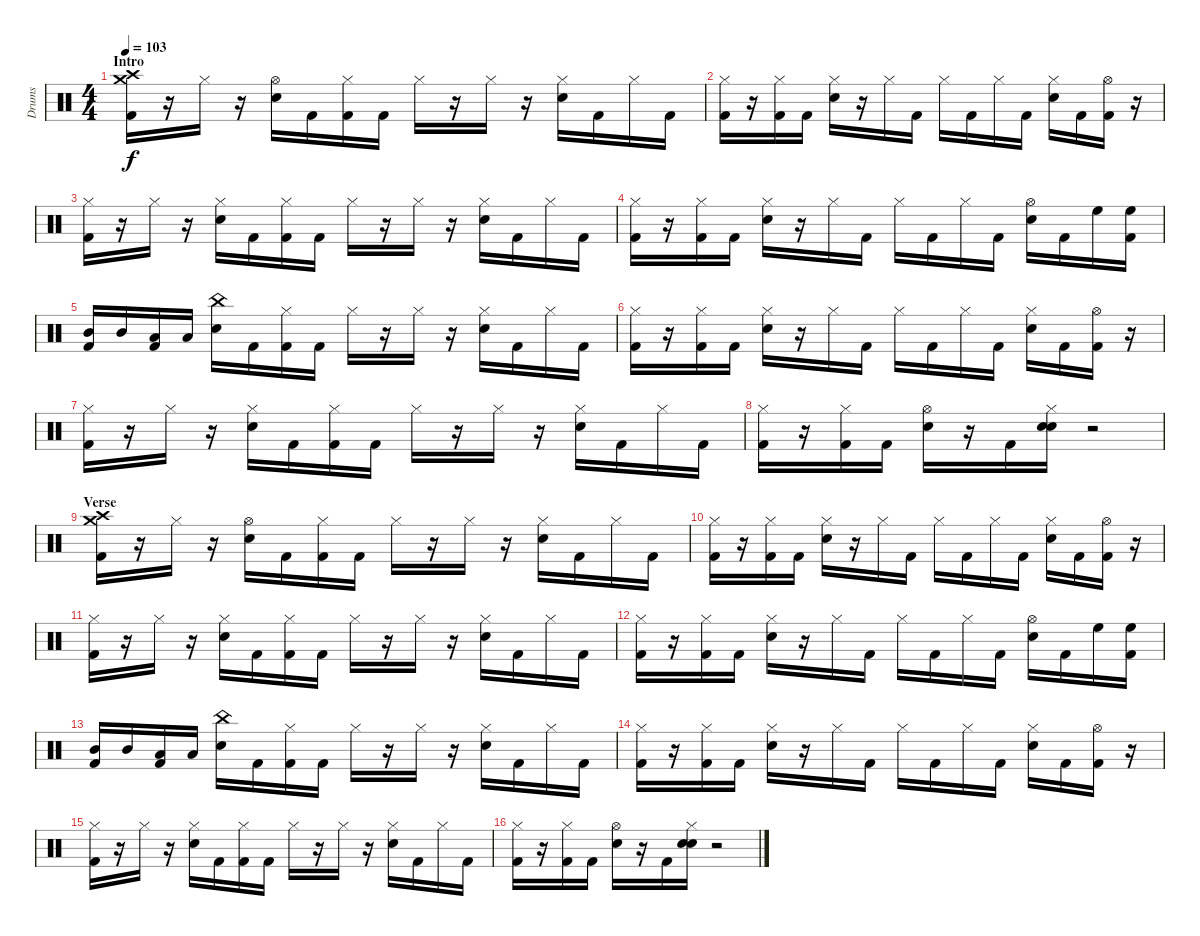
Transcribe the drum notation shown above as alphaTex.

\track ("Drums" "Drums") {instrument percussion}
\staff {score}
\articulation defaults
\ts (4 4)
\section ("" "Intro")
\tempo 103
\clef neutral
\ks c
("Crash high (hit)" "Crash medium (hit)" "Kick (hit) 2").16{dy f} r.16 "Hi-Hat (closed)".16 r.16 ("Hi-Hat (open)" "Snare (hit) 2").16 "Kick (hit) 2".16 ("Hi-Hat (closed)" "Kick (hit) 2").16 "Kick (hit) 2".16 "Hi-Hat (closed)".16 r.16 "Hi-Hat (closed)".16 r.16 ("Hi-Hat (closed)" "Snare (hit) 2").16 "Kick (hit) 2".16 "Hi-Hat (closed)".16 "Kick (hit) 2".16 |
("Hi-Hat (closed)" "Kick (hit) 2").16 r.16 ("Hi-Hat (closed)" "Kick (hit) 2").16 "Kick (hit) 2".16 ("Hi-Hat (closed)" "Snare (hit) 2").16 r.16 "Hi-Hat (closed)".16 "Kick (hit) 2".16 "Hi-Hat (closed)".16 "Kick (hit) 2".16 "Hi-Hat (closed)".16 "Kick (hit) 2".16 ("Hi-Hat (closed)" "Snare (hit) 2").16 "Kick (hit) 2".16 ("Hi-Hat (open)" "Kick (hit) 2").16 r.16 |
("Hi-Hat (closed)" "Kick (hit) 2").16 r.16 "Hi-Hat (closed)".16 r.16 ("Hi-Hat (closed)" "Snare (hit) 2").16 "Kick (hit) 2".16 ("Hi-Hat (closed)" "Kick (hit) 2").16 "Kick (hit) 2".16 "Hi-Hat (closed)".16 r.16 "Hi-Hat (closed)".16 r.16 ("Hi-Hat (closed)" "Snare (hit) 2").16 "Kick (hit) 2".16 "Hi-Hat (closed)".16 "Kick (hit) 2".16 |
("Hi-Hat (closed)" "Kick (hit) 2").16 r.16 ("Hi-Hat (closed)" "Kick (hit) 2").16 "Kick (hit) 2".16 ("Hi-Hat (closed)" "Snare (hit) 2").16 r.16 "Hi-Hat (closed)".16 "Kick (hit) 2".16 "Hi-Hat (closed)".16 "Kick (hit) 2".16 "Hi-Hat (closed)".16 "Kick (hit) 2".16 ("Hi-Hat (open)" "Snare (hit) 2").16 "Kick (hit) 2".16 "High Floor Tom (hit)".16 ("High Floor Tom (hit)" "Kick (hit) 2").16 |
("Mid Tom (hit)" "Kick (hit) 2").16 "Mid Tom (hit)".16 ("Low Tom (hit)" "Kick (hit) 2").16 "Low Tom (hit)".16 ("China (hit)" "Snare (hit) 2").16 "Kick (hit) 2".16 ("Hi-Hat (closed)" "Kick (hit) 2").16 "Kick (hit) 2".16 "Hi-Hat (closed)".16 r.16 "Hi-Hat (closed)".16 r.16 ("Hi-Hat (closed)" "Snare (hit) 2").16 "Kick (hit) 2".16 "Hi-Hat (closed)".16 "Kick (hit) 2".16 |
("Hi-Hat (closed)" "Kick (hit) 2").16 r.16 ("Hi-Hat (closed)" "Kick (hit) 2").16 "Kick (hit) 2".16 ("Hi-Hat (closed)" "Snare (hit) 2").16 r.16 "Hi-Hat (closed)".16 "Kick (hit) 2".16 "Hi-Hat (closed)".16 "Kick (hit) 2".16 "Hi-Hat (closed)".16 "Kick (hit) 2".16 ("Hi-Hat (closed)" "Snare (hit) 2").16 "Kick (hit) 2".16 ("Hi-Hat (open)" "Kick (hit) 2").16 r.16 |
("Hi-Hat (closed)" "Kick (hit) 2").16 r.16 "Hi-Hat (closed)".16 r.16 ("Hi-Hat (closed)" "Snare (hit) 2").16 "Kick (hit) 2".16 ("Hi-Hat (closed)" "Kick (hit) 2").16 "Kick (hit) 2".16 "Hi-Hat (closed)".16 r.16 "Hi-Hat (closed)".16 r.16 ("Hi-Hat (closed)" "Snare (hit) 2").16 "Kick (hit) 2".16 "Hi-Hat (closed)".16 "Kick (hit) 2".16 |
("Hi-Hat (closed)" "Kick (hit) 2").16 r.16 ("Hi-Hat (closed)" "Kick (hit) 2").16 "Kick (hit) 2".16 ("Hi-Hat (open)" "Snare (hit) 2").16 r.16 "Kick (hit) 2".16 ("Hi-Hat (closed)" "Snare (hit) 2" "Snare (hit) 2").16 r.2 |
\section ("" "Verse")
("Crash high (hit)" "Crash medium (hit)" "Kick (hit) 2").16 r.16 "Hi-Hat (closed)".16 r.16 ("Hi-Hat (open)" "Snare (hit) 2").16 "Kick (hit) 2".16 ("Hi-Hat (closed)" "Kick (hit) 2").16 "Kick (hit) 2".16 "Hi-Hat (closed)".16 r.16 "Hi-Hat (closed)".16 r.16 ("Hi-Hat (closed)" "Snare (hit) 2").16 "Kick (hit) 2".16 "Hi-Hat (closed)".16 "Kick (hit) 2".16 |
("Hi-Hat (closed)" "Kick (hit) 2").16 r.16 ("Hi-Hat (closed)" "Kick (hit) 2").16 "Kick (hit) 2".16 ("Hi-Hat (closed)" "Snare (hit) 2").16 r.16 "Hi-Hat (closed)".16 "Kick (hit) 2".16 "Hi-Hat (closed)".16 "Kick (hit) 2".16 "Hi-Hat (closed)".16 "Kick (hit) 2".16 ("Hi-Hat (closed)" "Snare (hit) 2").16 "Kick (hit) 2".16 ("Hi-Hat (open)" "Kick (hit) 2").16 r.16 |
("Hi-Hat (closed)" "Kick (hit) 2").16 r.16 "Hi-Hat (closed)".16 r.16 ("Hi-Hat (closed)" "Snare (hit) 2").16 "Kick (hit) 2".16 ("Hi-Hat (closed)" "Kick (hit) 2").16 "Kick (hit) 2".16 "Hi-Hat (closed)".16 r.16 "Hi-Hat (closed)".16 r.16 ("Hi-Hat (closed)" "Snare (hit) 2").16 "Kick (hit) 2".16 "Hi-Hat (closed)".16 "Kick (hit) 2".16 |
("Hi-Hat (closed)" "Kick (hit) 2").16 r.16 ("Hi-Hat (closed)" "Kick (hit) 2").16 "Kick (hit) 2".16 ("Hi-Hat (closed)" "Snare (hit) 2").16 r.16 "Hi-Hat (closed)".16 "Kick (hit) 2".16 "Hi-Hat (closed)".16 "Kick (hit) 2".16 "Hi-Hat (closed)".16 "Kick (hit) 2".16 ("Hi-Hat (open)" "Snare (hit) 2").16 "Kick (hit) 2".16 "High Floor Tom (hit)".16 ("High Floor Tom (hit)" "Kick (hit) 2").16 |
("Mid Tom (hit)" "Kick (hit) 2").16 "Mid Tom (hit)".16 ("Low Tom (hit)" "Kick (hit) 2").16 "Low Tom (hit)".16 ("China (hit)" "Snare (hit) 2").16 "Kick (hit) 2".16 ("Hi-Hat (closed)" "Kick (hit) 2").16 "Kick (hit) 2".16 "Hi-Hat (closed)".16 r.16 "Hi-Hat (closed)".16 r.16 ("Hi-Hat (closed)" "Snare (hit) 2").16 "Kick (hit) 2".16 "Hi-Hat (closed)".16 "Kick (hit) 2".16 |
("Hi-Hat (closed)" "Kick (hit) 2").16 r.16 ("Hi-Hat (closed)" "Kick (hit) 2").16 "Kick (hit) 2".16 ("Hi-Hat (closed)" "Snare (hit) 2").16 r.16 "Hi-Hat (closed)".16 "Kick (hit) 2".16 "Hi-Hat (closed)".16 "Kick (hit) 2".16 "Hi-Hat (closed)".16 "Kick (hit) 2".16 ("Hi-Hat (closed)" "Snare (hit) 2").16 "Kick (hit) 2".16 ("Hi-Hat (open)" "Kick (hit) 2").16 r.16 |
("Hi-Hat (closed)" "Kick (hit) 2").16 r.16 "Hi-Hat (closed)".16 r.16 ("Hi-Hat (closed)" "Snare (hit) 2").16 "Kick (hit) 2".16 ("Hi-Hat (closed)" "Kick (hit) 2").16 "Kick (hit) 2".16 "Hi-Hat (closed)".16 r.16 "Hi-Hat (closed)".16 r.16 ("Hi-Hat (closed)" "Snare (hit) 2").16 "Kick (hit) 2".16 "Hi-Hat (closed)".16 "Kick (hit) 2".16 |
("Hi-Hat (closed)" "Kick (hit) 2").16 r.16 ("Hi-Hat (closed)" "Kick (hit) 2").16 "Kick (hit) 2".16 ("Hi-Hat (open)" "Snare (hit) 2").16 r.16 "Kick (hit) 2".16 ("Hi-Hat (closed)" "Snare (hit) 2" "Snare (hit) 2").16 r.2
